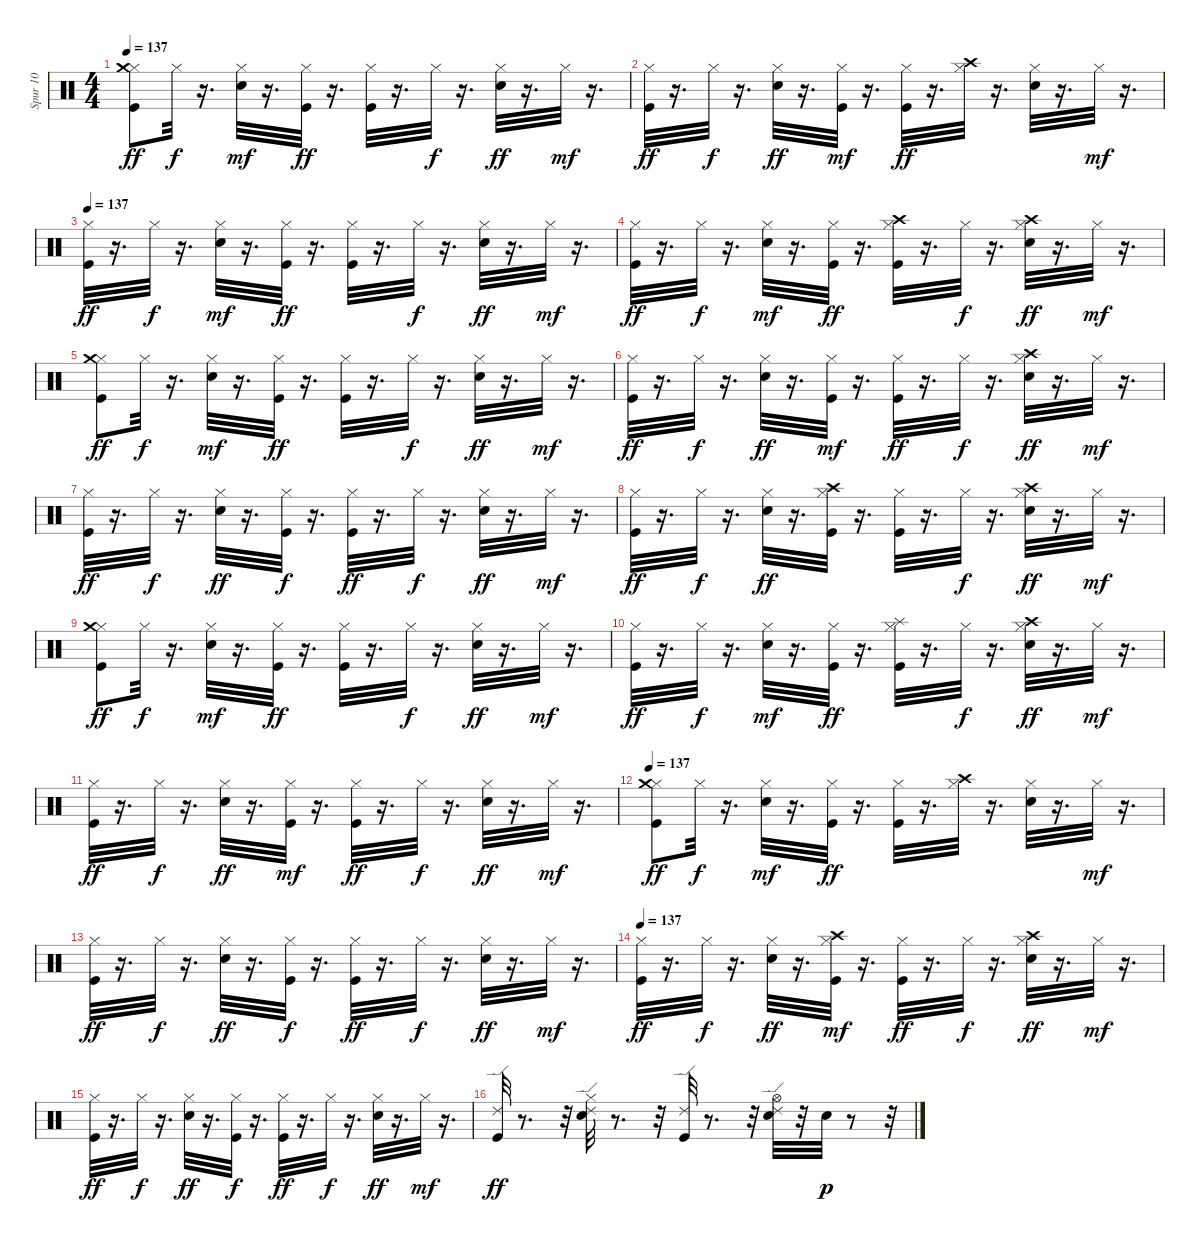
\track ("Spur 10" "Spur 10") {instrument percussion}
\staff {score}
\articulation defaults
\ts (4 4)
\tempo 137
\clef neutral
\ks c
("Kick (hit)" "Hi-Hat (closed)" "Crash medium (hit)").8{dy ff} "Hi-Hat (closed)".32{dy f} r.16{d} ("Electric Snare (hit)" "Hi-Hat (closed)").32{dy mf} r.16{d} ("Kick (hit)" "Hi-Hat (closed)").32{dy ff} r.16{d} ("Kick (hit)" "Hi-Hat (closed)").32 r.16{d} "Hi-Hat (closed)".32{dy f} r.16{d} ("Electric Snare (hit)" "Hi-Hat (closed)").32{dy ff} r.16{d} "Hi-Hat (closed)".32{dy mf} r.16{d} |
("Kick (hit)" "Hi-Hat (closed)").32{dy ff} r.16{d} "Hi-Hat (closed)".32{dy f} r.16{d} ("Electric Snare (hit)" "Hi-Hat (closed)").32{dy ff} r.16{d} ("Kick (hit)" "Hi-Hat (closed)").32{dy mf} r.16{d} ("Kick (hit)" "Hi-Hat (closed)").32{dy ff} r.16{d} ("Crash high (hit)" "Hi-Hat (closed)").32 r.16{d} ("Electric Snare (hit)" "Hi-Hat (closed)").32 r.16{d} "Hi-Hat (closed)".32{dy mf} r.16{d} |
\tempo 137
("Kick (hit)" "Hi-Hat (closed)").32{dy ff} r.16{d} "Hi-Hat (closed)".32{dy f} r.16{d} ("Electric Snare (hit)" "Hi-Hat (closed)").32{dy mf} r.16{d} ("Kick (hit)" "Hi-Hat (closed)").32{dy ff} r.16{d} ("Kick (hit)" "Hi-Hat (closed)").32 r.16{d} "Hi-Hat (closed)".32{dy f} r.16{d} ("Electric Snare (hit)" "Hi-Hat (closed)").32{dy ff} r.16{d} "Hi-Hat (closed)".32{dy mf} r.16{d} |
("Kick (hit)" "Hi-Hat (closed)").32{dy ff} r.16{d} "Hi-Hat (closed)".32{dy f} r.16{d} ("Electric Snare (hit)" "Hi-Hat (closed)").32{dy mf} r.16{d} ("Kick (hit)" "Hi-Hat (closed)").32{dy ff} r.16{d} ("Crash high (hit)" "Kick (hit)" "Hi-Hat (closed)").32 r.16{d} "Hi-Hat (closed)".32{dy f} r.16{d} ("Crash high (hit)" "Electric Snare (hit)" "Hi-Hat (closed)").32{dy ff} r.16{d} "Hi-Hat (closed)".32{dy mf} r.16{d} |
("Kick (hit)" "Hi-Hat (closed)" "Crash medium (hit)").8{dy ff} "Hi-Hat (closed)".32{dy f} r.16{d} ("Electric Snare (hit)" "Hi-Hat (closed)").32{dy mf} r.16{d} ("Kick (hit)" "Hi-Hat (closed)").32{dy ff} r.16{d} ("Kick (hit)" "Hi-Hat (closed)").32 r.16{d} "Hi-Hat (closed)".32{dy f} r.16{d} ("Electric Snare (hit)" "Hi-Hat (closed)").32{dy ff} r.16{d} "Hi-Hat (closed)".32{dy mf} r.16{d} |
("Kick (hit)" "Hi-Hat (closed)").32{dy ff} r.16{d} "Hi-Hat (closed)".32{dy f} r.16{d} ("Electric Snare (hit)" "Hi-Hat (closed)").32{dy ff} r.16{d} ("Kick (hit)" "Hi-Hat (closed)").32{dy mf} r.16{d} ("Kick (hit)" "Hi-Hat (closed)").32{dy ff} r.16{d} "Hi-Hat (closed)".32{dy f} r.16{d} ("Crash high (hit)" "Electric Snare (hit)" "Hi-Hat (closed)").32{dy ff} r.16{d} "Hi-Hat (closed)".32{dy mf} r.16{d} |
("Kick (hit)" "Hi-Hat (closed)").32{dy ff} r.16{d} "Hi-Hat (closed)".32{dy f} r.16{d} ("Electric Snare (hit)" "Hi-Hat (closed)").32{dy ff} r.16{d} ("Kick (hit)" "Hi-Hat (closed)").32{dy f} r.16{d} ("Kick (hit)" "Hi-Hat (closed)").32{dy ff} r.16{d} "Hi-Hat (closed)".32{dy f} r.16{d} ("Electric Snare (hit)" "Hi-Hat (closed)").32{dy ff} r.16{d} "Hi-Hat (closed)".32{dy mf} r.16{d} |
("Kick (hit)" "Hi-Hat (closed)").32{dy ff} r.16{d} "Hi-Hat (closed)".32{dy f} r.16{d} ("Electric Snare (hit)" "Hi-Hat (closed)").32{dy ff} r.16{d} ("Crash high (hit)" "Kick (hit)" "Hi-Hat (closed)").32 r.16{d} ("Kick (hit)" "Hi-Hat (closed)").32 r.16{d} "Hi-Hat (closed)".32{dy f} r.16{d} ("Crash high (hit)" "Electric Snare (hit)" "Hi-Hat (closed)").32{dy ff} r.16{d} "Hi-Hat (closed)".32{dy mf} r.16{d} |
("Kick (hit)" "Hi-Hat (closed)" "Crash medium (hit)").8{dy ff} "Hi-Hat (closed)".32{dy f} r.16{d} ("Electric Snare (hit)" "Hi-Hat (closed)").32{dy mf} r.16{d} ("Kick (hit)" "Hi-Hat (closed)").32{dy ff} r.16{d} ("Kick (hit)" "Hi-Hat (closed)").32 r.16{d} "Hi-Hat (closed)".32{dy f} r.16{d} ("Electric Snare (hit)" "Hi-Hat (closed)").32{dy ff} r.16{d} "Hi-Hat (closed)".32{dy mf} r.16{d} |
("Kick (hit)" "Hi-Hat (closed)").32{dy ff} r.16{d} "Hi-Hat (closed)".32{dy f} r.16{d} ("Electric Snare (hit)" "Hi-Hat (closed)").32{dy mf} r.16{d} ("Kick (hit)" "Hi-Hat (closed)").32{dy ff} r.16{d} ("Kick (hit)" "Hi-Hat (closed)" "Splash (hit)").32 r.16{d} "Hi-Hat (closed)".32{dy f} r.16{d} ("Crash high (hit)" "Electric Snare (hit)" "Hi-Hat (closed)").32{dy ff} r.16{d} "Hi-Hat (closed)".32{dy mf} r.16{d} |
("Kick (hit)" "Hi-Hat (closed)").32{dy ff} r.16{d} "Hi-Hat (closed)".32{dy f} r.16{d} ("Electric Snare (hit)" "Hi-Hat (closed)").32{dy ff} r.16{d} ("Kick (hit)" "Hi-Hat (closed)").32{dy mf} r.16{d} ("Kick (hit)" "Hi-Hat (closed)").32{dy ff} r.16{d} "Hi-Hat (closed)".32{dy f} r.16{d} ("Electric Snare (hit)" "Hi-Hat (closed)").32{dy ff} r.16{d} "Hi-Hat (closed)".32{dy mf} r.16{d} |
\tempo 137
("Kick (hit)" "Hi-Hat (closed)" "Crash medium (hit)").8{dy ff} "Hi-Hat (closed)".32{dy f} r.16{d} ("Electric Snare (hit)" "Hi-Hat (closed)").32{dy mf} r.16{d} ("Kick (hit)" "Hi-Hat (closed)").32{dy ff} r.16{d} ("Kick (hit)" "Hi-Hat (closed)").32 r.16{d} ("Crash high (hit)" "Hi-Hat (closed)").32 r.16{d} ("Electric Snare (hit)" "Hi-Hat (closed)").32 r.16{d} "Hi-Hat (closed)".32{dy mf} r.16{d} |
("Kick (hit)" "Hi-Hat (closed)").32{dy ff} r.16{d} "Hi-Hat (closed)".32{dy f} r.16{d} ("Electric Snare (hit)" "Hi-Hat (closed)").32{dy ff} r.16{d} ("Kick (hit)" "Hi-Hat (closed)").32{dy f} r.16{d} ("Kick (hit)" "Hi-Hat (closed)").32{dy ff} r.16{d} "Hi-Hat (closed)".32{dy f} r.16{d} ("Electric Snare (hit)" "Hi-Hat (closed)").32{dy ff} r.16{d} "Hi-Hat (closed)".32{dy mf} r.16{d} |
\tempo 137
("Kick (hit)" "Hi-Hat (closed)").32{dy ff} r.16{d} "Hi-Hat (closed)".32{dy f} r.16{d} ("Electric Snare (hit)" "Hi-Hat (closed)").32{dy ff} r.16{d} ("Crash high (hit)" "Kick (hit)" "Hi-Hat (closed)").32{dy mf} r.16{d} ("Kick (hit)" "Hi-Hat (closed)").32{dy ff} r.16{d} "Hi-Hat (closed)".32{dy f} r.16{d} ("Crash high (hit)" "Electric Snare (hit)" "Hi-Hat (closed)").32{dy ff} r.16{d} "Hi-Hat (closed)".32{dy mf} r.16{d} |
("Kick (hit)" "Hi-Hat (closed)").32{dy ff} r.16{d} "Hi-Hat (closed)".32{dy f} r.16{d} ("Electric Snare (hit)" "Hi-Hat (closed)").32{dy ff} r.16{d} ("Kick (hit)" "Hi-Hat (closed)").32{dy f} r.16{d} ("Kick (hit)" "Hi-Hat (closed)").32{dy ff} r.16{d} "Hi-Hat (closed)".32{dy f} r.16{d} ("Electric Snare (hit)" "Hi-Hat (closed)").32{dy ff} r.16{d} "Hi-Hat (closed)".32{dy mf} r.16{d} |
("Ride (edge) 2" "Kick (hit)").32{dy ff} r.8{d} r.32 ("Ride (edge) 2" "Electric Snare (hit)" "Hi-Hat (closed)").32 r.8{d} r.32 ("Ride (edge) 2" "Kick (hit)").32 r.8{d} r.32 ("Ride (edge) 2" "Electric Snare (hit)" "Hi-Hat (open)").32 r.32 "Electric Snare (hit)".32{dy p} r.8 r.32
